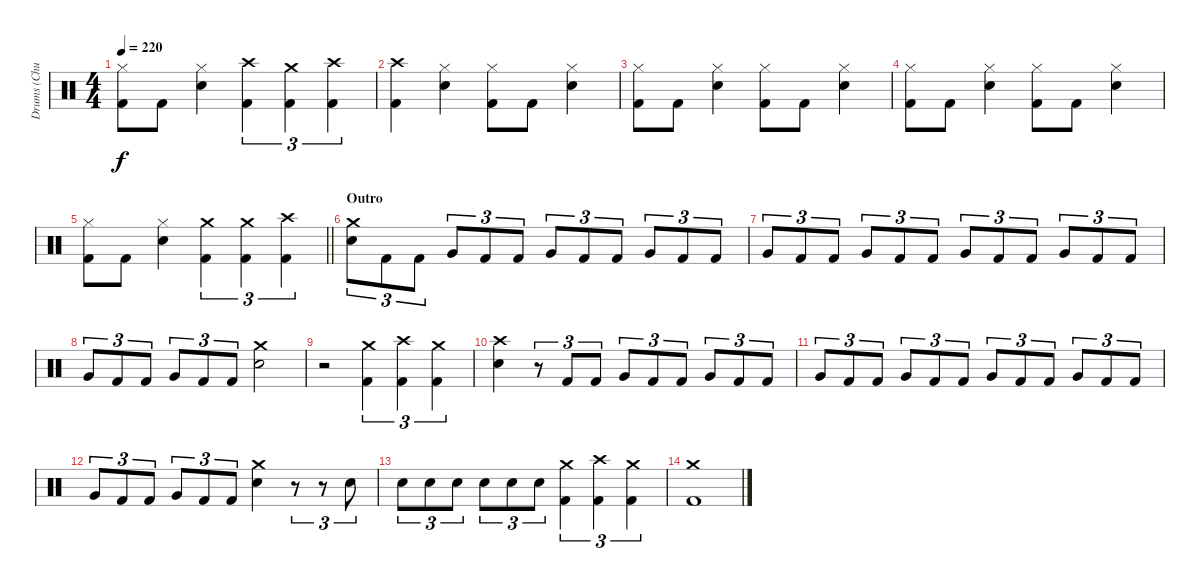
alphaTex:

\track ("Drums (Chuck Behler)" "Drums (Chu") {instrument percussion}
\staff {score}
\articulation defaults
\ts (4 4)
\tempo 220
\clef neutral
\ks c
("Hi-Hat (closed)" "Kick (hit) 2").8{dy f} "Kick (hit) 2".8 ("Hi-Hat (closed)" "Snare (hit) 2").4 ("Crash high (hit)" "Kick (hit) 2").4{tu (3 2)} ("Crash medium (hit)" "Kick (hit) 2").4{tu (3 2)} ("Crash high (hit)" "Kick (hit) 2").4{tu (3 2)} |
("Crash high (hit)" "Kick (hit) 2").4 ("Hi-Hat (closed)" "Snare (hit) 2").4 ("Hi-Hat (closed)" "Kick (hit) 2").8 "Kick (hit) 2".8 ("Hi-Hat (closed)" "Snare (hit) 2").4 |
("Hi-Hat (closed)" "Kick (hit) 2").8 "Kick (hit) 2".8 ("Hi-Hat (closed)" "Snare (hit) 2").4 ("Hi-Hat (closed)" "Kick (hit) 2").8 "Kick (hit) 2".8 ("Hi-Hat (closed)" "Snare (hit) 2").4 |
("Hi-Hat (closed)" "Kick (hit) 2").8 "Kick (hit) 2".8 ("Hi-Hat (closed)" "Snare (hit) 2").4 ("Hi-Hat (closed)" "Kick (hit) 2").8 "Kick (hit) 2".8 ("Hi-Hat (closed)" "Snare (hit) 2").4 |
\barLineRight lightlight
("Hi-Hat (closed)" "Kick (hit) 2").8 "Kick (hit) 2".8 ("Hi-Hat (closed)" "Snare (hit) 2").4 ("Crash medium (hit)" "Kick (hit) 2").4{tu (3 2)} ("Crash medium (hit)" "Kick (hit) 2").4{tu (3 2)} ("Crash high (hit)" "Kick (hit) 2").4{tu (3 2)} |
\section ("" "Outro")
("Crash medium (hit)" "Snare (hit) 2").8{tu (3 2)} "Kick (hit) 2".8{tu (3 2)} "Kick (hit) 2".8{tu (3 2)} "Very Low Tom (hit)".8{tu (3 2)} "Kick (hit) 2".8{tu (3 2)} "Kick (hit) 2".8{tu (3 2)} "Very Low Tom (hit)".8{tu (3 2)} "Kick (hit) 2".8{tu (3 2)} "Kick (hit) 2".8{tu (3 2)} "Very Low Tom (hit)".8{tu (3 2)} "Kick (hit) 2".8{tu (3 2)} "Kick (hit) 2".8{tu (3 2)} |
"Very Low Tom (hit)".8{tu (3 2)} "Kick (hit) 2".8{tu (3 2)} "Kick (hit) 2".8{tu (3 2)} "Very Low Tom (hit)".8{tu (3 2)} "Kick (hit) 2".8{tu (3 2)} "Kick (hit) 2".8{tu (3 2)} "Very Low Tom (hit)".8{tu (3 2)} "Kick (hit) 2".8{tu (3 2)} "Kick (hit) 2".8{tu (3 2)} "Very Low Tom (hit)".8{tu (3 2)} "Kick (hit) 2".8{tu (3 2)} "Kick (hit) 2".8{tu (3 2)} |
"Very Low Tom (hit)".8{tu (3 2)} "Kick (hit) 2".8{tu (3 2)} "Kick (hit) 2".8{tu (3 2)} "Very Low Tom (hit)".8{tu (3 2)} "Kick (hit) 2".8{tu (3 2)} "Kick (hit) 2".8{tu (3 2)} ("Crash medium (hit)" "Snare (hit) 2").2 |
r.2 ("Crash medium (hit)" "Kick (hit) 2").4{tu (3 2)} ("Crash high (hit)" "Kick (hit) 2").4{tu (3 2)} ("Crash medium (hit)" "Kick (hit) 2").4{tu (3 2)} |
("Crash high (hit)" "Snare (hit) 2").4 r.8{tu (3 2)} "Kick (hit) 2".8{tu (3 2)} "Kick (hit) 2".8{tu (3 2)} "Very Low Tom (hit)".8{tu (3 2)} "Kick (hit) 2".8{tu (3 2)} "Kick (hit) 2".8{tu (3 2)} "Very Low Tom (hit)".8{tu (3 2)} "Kick (hit) 2".8{tu (3 2)} "Kick (hit) 2".8{tu (3 2)} |
"Very Low Tom (hit)".8{tu (3 2)} "Kick (hit) 2".8{tu (3 2)} "Kick (hit) 2".8{tu (3 2)} "Very Low Tom (hit)".8{tu (3 2)} "Kick (hit) 2".8{tu (3 2)} "Kick (hit) 2".8{tu (3 2)} "Very Low Tom (hit)".8{tu (3 2)} "Kick (hit) 2".8{tu (3 2)} "Kick (hit) 2".8{tu (3 2)} "Very Low Tom (hit)".8{tu (3 2)} "Kick (hit) 2".8{tu (3 2)} "Kick (hit) 2".8{tu (3 2)} |
"Very Low Tom (hit)".8{tu (3 2)} "Kick (hit) 2".8{tu (3 2)} "Kick (hit) 2".8{tu (3 2)} "Very Low Tom (hit)".8{tu (3 2)} "Kick (hit) 2".8{tu (3 2)} "Kick (hit) 2".8{tu (3 2)} ("Crash medium (hit)" "Snare (hit) 2").4 r.8{tu (3 2)} r.8{tu (3 2)} "Snare (hit) 2".8{tu (3 2)} |
"Snare (hit) 2".8{tu (3 2)} "Snare (hit) 2".8{tu (3 2)} "Snare (hit) 2".8{tu (3 2)} "Snare (hit) 2".8{tu (3 2)} "Snare (hit) 2".8{tu (3 2)} "Snare (hit) 2".8{tu (3 2)} ("Crash medium (hit)" "Kick (hit) 2").4{tu (3 2)} ("Crash high (hit)" "Kick (hit) 2").4{tu (3 2)} ("Crash medium (hit)" "Kick (hit) 2").4{tu (3 2)} |
("Crash medium (hit)" "Kick (hit) 2").1
